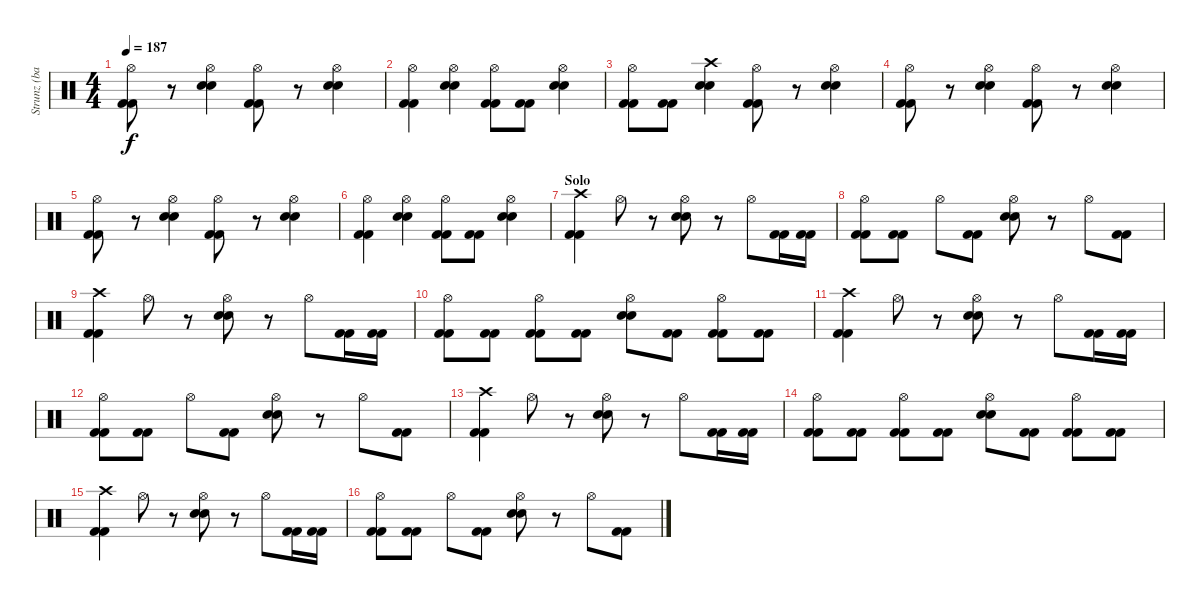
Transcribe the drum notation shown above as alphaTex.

\track ("Strunz (bateria)" "Strunz (ba") {instrument percussion}
\staff {score}
\articulation defaults
\ts (4 4)
\tempo 187
\clef neutral
\ks c
("Hi-Hat (open)" "Kick (hit) 2" "Kick (hit) 2").8{dy f} r.8 ("Hi-Hat (open)" "Snare (hit) 2" "Snare (hit) 2").4 ("Hi-Hat (open)" "Kick (hit) 2" "Kick (hit) 2").8 r.8 ("Hi-Hat (open)" "Snare (hit) 2" "Snare (hit) 2").4 |
("Hi-Hat (open)" "Kick (hit) 2" "Kick (hit) 2").4 ("Hi-Hat (open)" "Snare (hit) 2" "Snare (hit) 2").4 ("Hi-Hat (open)" "Kick (hit) 2" "Kick (hit) 2").8 ("Kick (hit) 2" "Kick (hit) 2").8 ("Hi-Hat (open)" "Snare (hit) 2" "Snare (hit) 2").4 |
("Hi-Hat (open)" "Kick (hit) 2" "Kick (hit) 2").8 ("Kick (hit) 2" "Kick (hit) 2").8 ("Crash high (hit)" "Snare (hit) 2" "Snare (hit) 2").4 ("Hi-Hat (open)" "Kick (hit) 2" "Kick (hit) 2").8 r.8 ("Hi-Hat (open)" "Snare (hit) 2" "Snare (hit) 2").4 |
("Hi-Hat (open)" "Kick (hit) 2" "Kick (hit) 2").8 r.8 ("Hi-Hat (open)" "Snare (hit) 2" "Snare (hit) 2").4 ("Hi-Hat (open)" "Kick (hit) 2" "Kick (hit) 2").8 r.8 ("Hi-Hat (open)" "Snare (hit) 2" "Snare (hit) 2").4 |
("Hi-Hat (open)" "Kick (hit) 2" "Kick (hit) 2").8 r.8 ("Hi-Hat (open)" "Snare (hit) 2" "Snare (hit) 2").4 ("Hi-Hat (open)" "Kick (hit) 2" "Kick (hit) 2").8 r.8 ("Hi-Hat (open)" "Snare (hit) 2" "Snare (hit) 2").4 |
("Hi-Hat (open)" "Kick (hit) 2" "Kick (hit) 2").4 ("Hi-Hat (open)" "Snare (hit) 2" "Snare (hit) 2").4 ("Hi-Hat (open)" "Kick (hit) 2" "Kick (hit) 2").8 ("Kick (hit) 2" "Kick (hit) 2").8 ("Hi-Hat (open)" "Snare (hit) 2" "Snare (hit) 2").4 |
\section ("" "Solo")
("Crash high (hit)" "Kick (hit) 2" "Kick (hit) 2").4 "Hi-Hat (open)".8 r.8 ("Hi-Hat (open)" "Snare (hit) 2" "Snare (hit) 2").8 r.8 "Hi-Hat (open)".8 ("Kick (hit) 2" "Kick (hit) 2").16 ("Kick (hit) 2" "Kick (hit) 2").16 |
("Hi-Hat (open)" "Kick (hit) 2" "Kick (hit) 2").8 ("Kick (hit) 2" "Kick (hit) 2").8 "Hi-Hat (open)".8 ("Kick (hit) 2" "Kick (hit) 2").8 ("Hi-Hat (open)" "Snare (hit) 2" "Snare (hit) 2").8 r.8 "Hi-Hat (open)".8 ("Kick (hit) 2" "Kick (hit) 2").8 |
("Crash high (hit)" "Kick (hit) 2" "Kick (hit) 2").4 "Hi-Hat (open)".8 r.8 ("Hi-Hat (open)" "Snare (hit) 2" "Snare (hit) 2").8 r.8 "Hi-Hat (open)".8 ("Kick (hit) 2" "Kick (hit) 2").16 ("Kick (hit) 2" "Kick (hit) 2").16 |
("Hi-Hat (open)" "Kick (hit) 2" "Kick (hit) 2").8 ("Kick (hit) 2" "Kick (hit) 2").8 ("Hi-Hat (open)" "Kick (hit) 2" "Kick (hit) 2").8 ("Kick (hit) 2" "Kick (hit) 2").8 ("Hi-Hat (open)" "Snare (hit) 2" "Snare (hit) 2").8 ("Kick (hit) 2" "Kick (hit) 2").8 ("Hi-Hat (open)" "Kick (hit) 2" "Kick (hit) 2").8 ("Kick (hit) 2" "Kick (hit) 2").8 |
("Crash high (hit)" "Kick (hit) 2" "Kick (hit) 2").4 "Hi-Hat (open)".8 r.8 ("Hi-Hat (open)" "Snare (hit) 2" "Snare (hit) 2").8 r.8 "Hi-Hat (open)".8 ("Kick (hit) 2" "Kick (hit) 2").16 ("Kick (hit) 2" "Kick (hit) 2").16 |
("Hi-Hat (open)" "Kick (hit) 2" "Kick (hit) 2").8 ("Kick (hit) 2" "Kick (hit) 2").8 "Hi-Hat (open)".8 ("Kick (hit) 2" "Kick (hit) 2").8 ("Hi-Hat (open)" "Snare (hit) 2" "Snare (hit) 2").8 r.8 "Hi-Hat (open)".8 ("Kick (hit) 2" "Kick (hit) 2").8 |
("Crash high (hit)" "Kick (hit) 2" "Kick (hit) 2").4 "Hi-Hat (open)".8 r.8 ("Hi-Hat (open)" "Snare (hit) 2" "Snare (hit) 2").8 r.8 "Hi-Hat (open)".8 ("Kick (hit) 2" "Kick (hit) 2").16 ("Kick (hit) 2" "Kick (hit) 2").16 |
("Hi-Hat (open)" "Kick (hit) 2" "Kick (hit) 2").8 ("Kick (hit) 2" "Kick (hit) 2").8 ("Hi-Hat (open)" "Kick (hit) 2" "Kick (hit) 2").8 ("Kick (hit) 2" "Kick (hit) 2").8 ("Hi-Hat (open)" "Snare (hit) 2" "Snare (hit) 2").8 ("Kick (hit) 2" "Kick (hit) 2").8 ("Hi-Hat (open)" "Kick (hit) 2" "Kick (hit) 2").8 ("Kick (hit) 2" "Kick (hit) 2").8 |
("Crash high (hit)" "Kick (hit) 2" "Kick (hit) 2").4 "Hi-Hat (open)".8 r.8 ("Hi-Hat (open)" "Snare (hit) 2" "Snare (hit) 2").8 r.8 "Hi-Hat (open)".8 ("Kick (hit) 2" "Kick (hit) 2").16 ("Kick (hit) 2" "Kick (hit) 2").16 |
("Hi-Hat (open)" "Kick (hit) 2" "Kick (hit) 2").8 ("Kick (hit) 2" "Kick (hit) 2").8 "Hi-Hat (open)".8 ("Kick (hit) 2" "Kick (hit) 2").8 ("Hi-Hat (open)" "Snare (hit) 2" "Snare (hit) 2").8 r.8 "Hi-Hat (open)".8 ("Kick (hit) 2" "Kick (hit) 2").8
